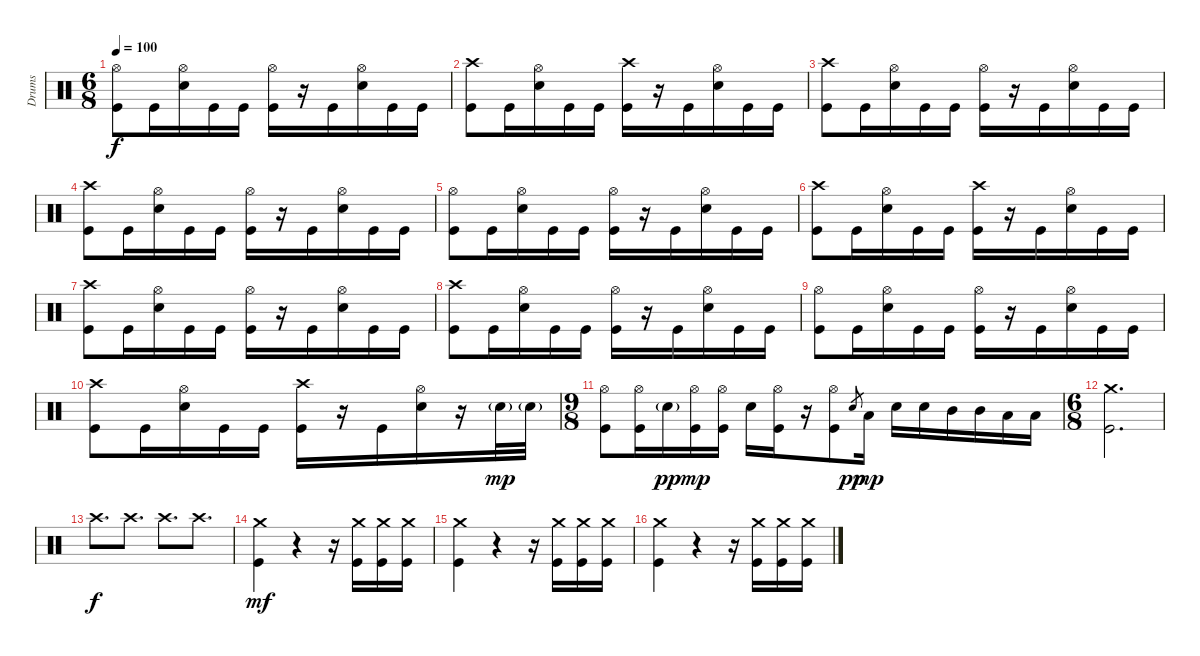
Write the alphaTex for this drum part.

\track ("Drums" "Drums") {instrument percussion}
\staff {score}
\articulation defaults
\ts (6 8)
\tempo 100
\clef neutral
\ks c
("Hi-Hat (open)" "Kick (hit)").8{dy f} "Kick (hit)".16 ("Hi-Hat (open)" "Electric Snare (hit)").16 "Kick (hit)".16 "Kick (hit)".16 ("Hi-Hat (open)" "Kick (hit)").16 r.16 "Kick (hit)".16 ("Hi-Hat (open)" "Electric Snare (hit)").16 "Kick (hit)".16 "Kick (hit)".16 |
("Crash high (hit)" "Kick (hit)").8 "Kick (hit)".16 ("Hi-Hat (open)" "Electric Snare (hit)").16 "Kick (hit)".16 "Kick (hit)".16 ("Crash high (hit)" "Kick (hit)").16 r.16 "Kick (hit)".16 ("Hi-Hat (open)" "Electric Snare (hit)").16 "Kick (hit)".16 "Kick (hit)".16 |
("Crash high (hit)" "Kick (hit)").8 "Kick (hit)".16 ("Hi-Hat (open)" "Electric Snare (hit)").16 "Kick (hit)".16 "Kick (hit)".16 ("Hi-Hat (open)" "Kick (hit)").16 r.16 "Kick (hit)".16 ("Hi-Hat (open)" "Electric Snare (hit)").16 "Kick (hit)".16 "Kick (hit)".16 |
("Crash high (hit)" "Kick (hit)").8 "Kick (hit)".16 ("Hi-Hat (open)" "Electric Snare (hit)").16 "Kick (hit)".16 "Kick (hit)".16 ("Hi-Hat (open)" "Kick (hit)").16 r.16 "Kick (hit)".16 ("Hi-Hat (open)" "Electric Snare (hit)").16 "Kick (hit)".16 "Kick (hit)".16 |
("Hi-Hat (open)" "Kick (hit)").8 "Kick (hit)".16 ("Hi-Hat (open)" "Electric Snare (hit)").16 "Kick (hit)".16 "Kick (hit)".16 ("Hi-Hat (open)" "Kick (hit)").16 r.16 "Kick (hit)".16 ("Hi-Hat (open)" "Electric Snare (hit)").16 "Kick (hit)".16 "Kick (hit)".16 |
("Crash high (hit)" "Kick (hit)").8 "Kick (hit)".16 ("Hi-Hat (open)" "Electric Snare (hit)").16 "Kick (hit)".16 "Kick (hit)".16 ("Crash high (hit)" "Kick (hit)").16 r.16 "Kick (hit)".16 ("Hi-Hat (open)" "Electric Snare (hit)").16 "Kick (hit)".16 "Kick (hit)".16 |
("Crash high (hit)" "Kick (hit)").8 "Kick (hit)".16 ("Hi-Hat (open)" "Electric Snare (hit)").16 "Kick (hit)".16 "Kick (hit)".16 ("Hi-Hat (open)" "Kick (hit)").16 r.16 "Kick (hit)".16 ("Hi-Hat (open)" "Electric Snare (hit)").16 "Kick (hit)".16 "Kick (hit)".16 |
("Crash high (hit)" "Kick (hit)").8 "Kick (hit)".16 ("Hi-Hat (open)" "Electric Snare (hit)").16 "Kick (hit)".16 "Kick (hit)".16 ("Hi-Hat (open)" "Kick (hit)").16 r.16 "Kick (hit)".16 ("Hi-Hat (open)" "Electric Snare (hit)").16 "Kick (hit)".16 "Kick (hit)".16 |
("Hi-Hat (open)" "Kick (hit)").8 "Kick (hit)".16 ("Hi-Hat (open)" "Electric Snare (hit)").16 "Kick (hit)".16 "Kick (hit)".16 ("Hi-Hat (open)" "Kick (hit)").16 r.16 "Kick (hit)".16 ("Hi-Hat (open)" "Electric Snare (hit)").16 "Kick (hit)".16 "Kick (hit)".16 |
("Crash high (hit)" "Kick (hit)").8 "Kick (hit)".16 ("Hi-Hat (open)" "Electric Snare (hit)").16 "Kick (hit)".16 "Kick (hit)".16 ("Crash high (hit)" "Kick (hit)").16 r.16 "Kick (hit)".16 ("Hi-Hat (open)" "Electric Snare (hit)").16 r.16 "Electric Snare (hit)"{g}.32{dy mp} "Electric Snare (hit)"{g}.32 |
\ts (9 8)
("Hi-Hat (open)" "Kick (hit)").8 ("Hi-Hat (open)" "Kick (hit)").16 "Electric Snare (hit)"{g}.16{dy pp} ("Hi-Hat (open)" "Kick (hit)").16{dy mp} ("Hi-Hat (open)" "Kick (hit)").16 "Electric Snare (hit)".16 ("Hi-Hat (open)" "Kick (hit)").16 r.16 ("Hi-Hat (open)" "Kick (hit)").8 "Electric Snare (hit)".8{gr dy pp} "Low Tom (hit)".16{dy mp} "Electric Snare (hit)".16 "Electric Snare (hit)".16 "Mid Tom (hit)".16 "Mid Tom (hit)".16 "Low Tom (hit)".16 "Low Tom (hit)".16 |
\ts (6 8)
("Crash medium (hit)" "Kick (hit)").2{d} |
"Crash high (hit)".8{d dy f} "Crash high (hit)".8{d} "Crash high (hit)".8{d} "Crash high (hit)".8{d} |
("Crash medium (hit)" "Kick (hit)").4{dy mf} r.4 r.16 ("Crash medium (hit)" "Kick (hit)").16 ("Crash medium (hit)" "Kick (hit)").16 ("Crash medium (hit)" "Kick (hit)").16 |
("Crash medium (hit)" "Kick (hit)").4 r.4 r.16 ("Crash medium (hit)" "Kick (hit)").16 ("Crash medium (hit)" "Kick (hit)").16 ("Crash medium (hit)" "Kick (hit)").16 |
("Crash medium (hit)" "Kick (hit)").4 r.4 r.16 ("Crash medium (hit)" "Kick (hit)").16 ("Crash medium (hit)" "Kick (hit)").16 ("Crash medium (hit)" "Kick (hit)").16
